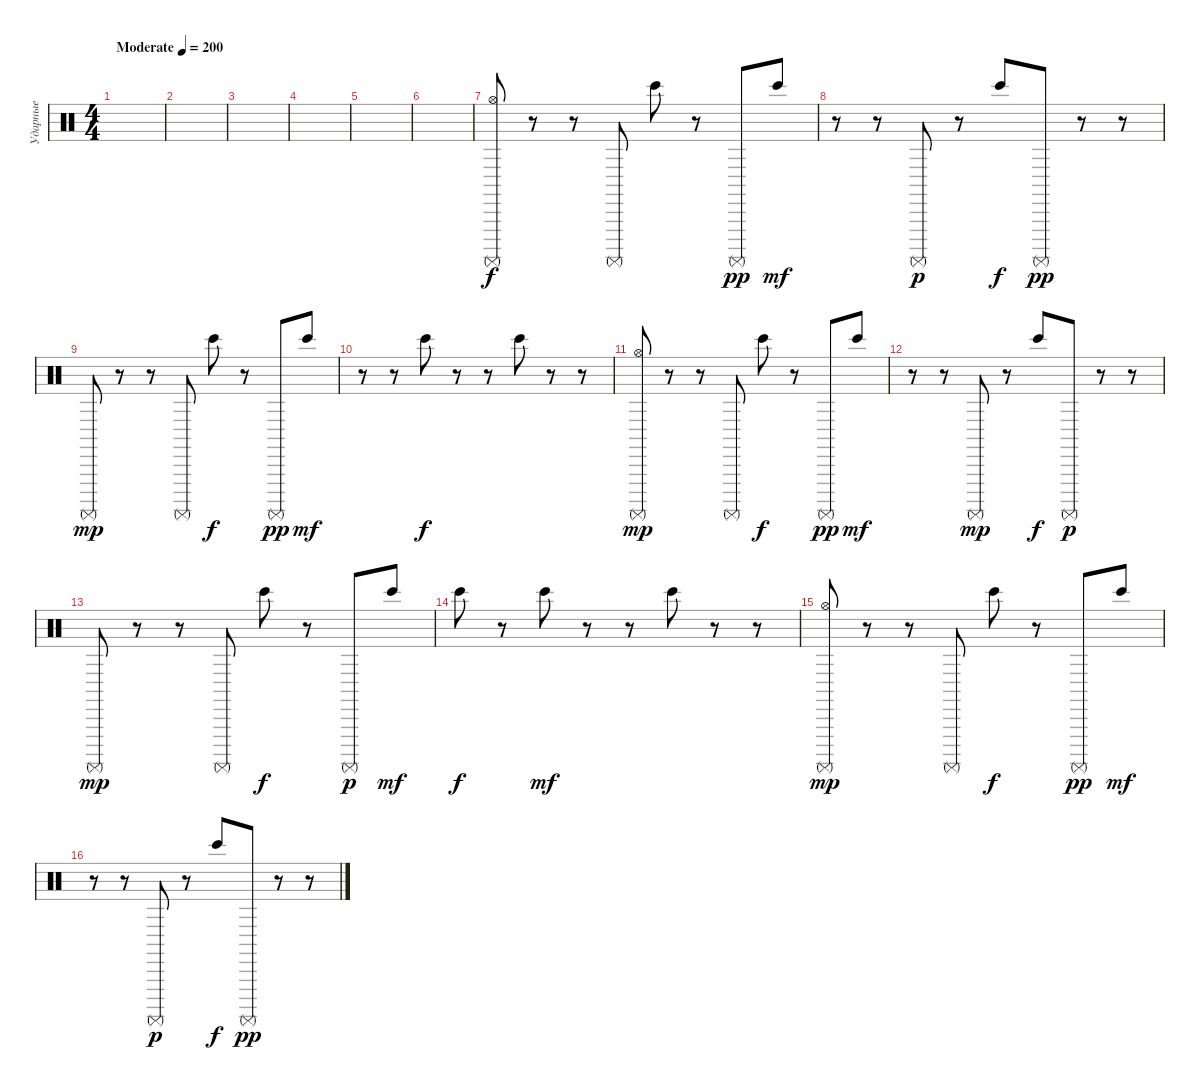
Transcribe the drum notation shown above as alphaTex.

\track ("Ударные" "Ударные") {instrument percussion}
\staff {score}
\articulation defaults
\ts (4 4)
\tempo (200 "Moderate")
\clef neutral
\ks c
|
|
|
|
|
|
("Hi-Hat (open)" "Surdo (mute)").8 r.8 r.8 "Surdo (mute)".8 "Bongo High (hit)".8{dy f} r.8 "Surdo (mute)".8{dy pp} "Bongo High (hit)".8{dy mf} |
r.8 r.8 "Surdo (mute)".8{dy p} r.8 "Bongo High (hit)".8{dy f} "Surdo (mute)".8{dy pp} r.8 r.8 |
"Surdo (mute)".8{dy mp} r.8 r.8 "Surdo (mute)".8 "Bongo High (hit)".8{dy f} r.8 "Surdo (mute)".8{dy pp} "Bongo High (hit)".8{dy mf} |
r.8 r.8 "Bongo High (hit)".8{dy f} r.8 r.8 "Bongo High (hit)".8 r.8 r.8 |
("Hi-Hat (open)" "Surdo (mute)").8{dy mp} r.8 r.8 "Surdo (mute)".8 "Bongo High (hit)".8{dy f} r.8 "Surdo (mute)".8{dy pp} "Bongo High (hit)".8{dy mf} |
r.8 r.8 "Surdo (mute)".8{dy mp} r.8 "Bongo High (hit)".8{dy f} "Surdo (mute)".8{dy p} r.8 r.8 |
"Surdo (mute)".8{dy mp} r.8 r.8 "Surdo (mute)".8 "Bongo High (hit)".8{dy f} r.8 "Surdo (mute)".8{dy p} "Bongo High (hit)".8{dy mf} |
"Bongo High (hit)".8{dy f} r.8 "Bongo High (hit)".8{dy mf} r.8 r.8 "Bongo High (hit)".8 r.8 r.8 |
("Hi-Hat (open)" "Surdo (mute)").8{dy mp} r.8 r.8 "Surdo (mute)".8 "Bongo High (hit)".8{dy f} r.8 "Surdo (mute)".8{dy pp} "Bongo High (hit)".8{dy mf} |
r.8 r.8 "Surdo (mute)".8{dy p} r.8 "Bongo High (hit)".8{dy f} "Surdo (mute)".8{dy pp} r.8 r.8
